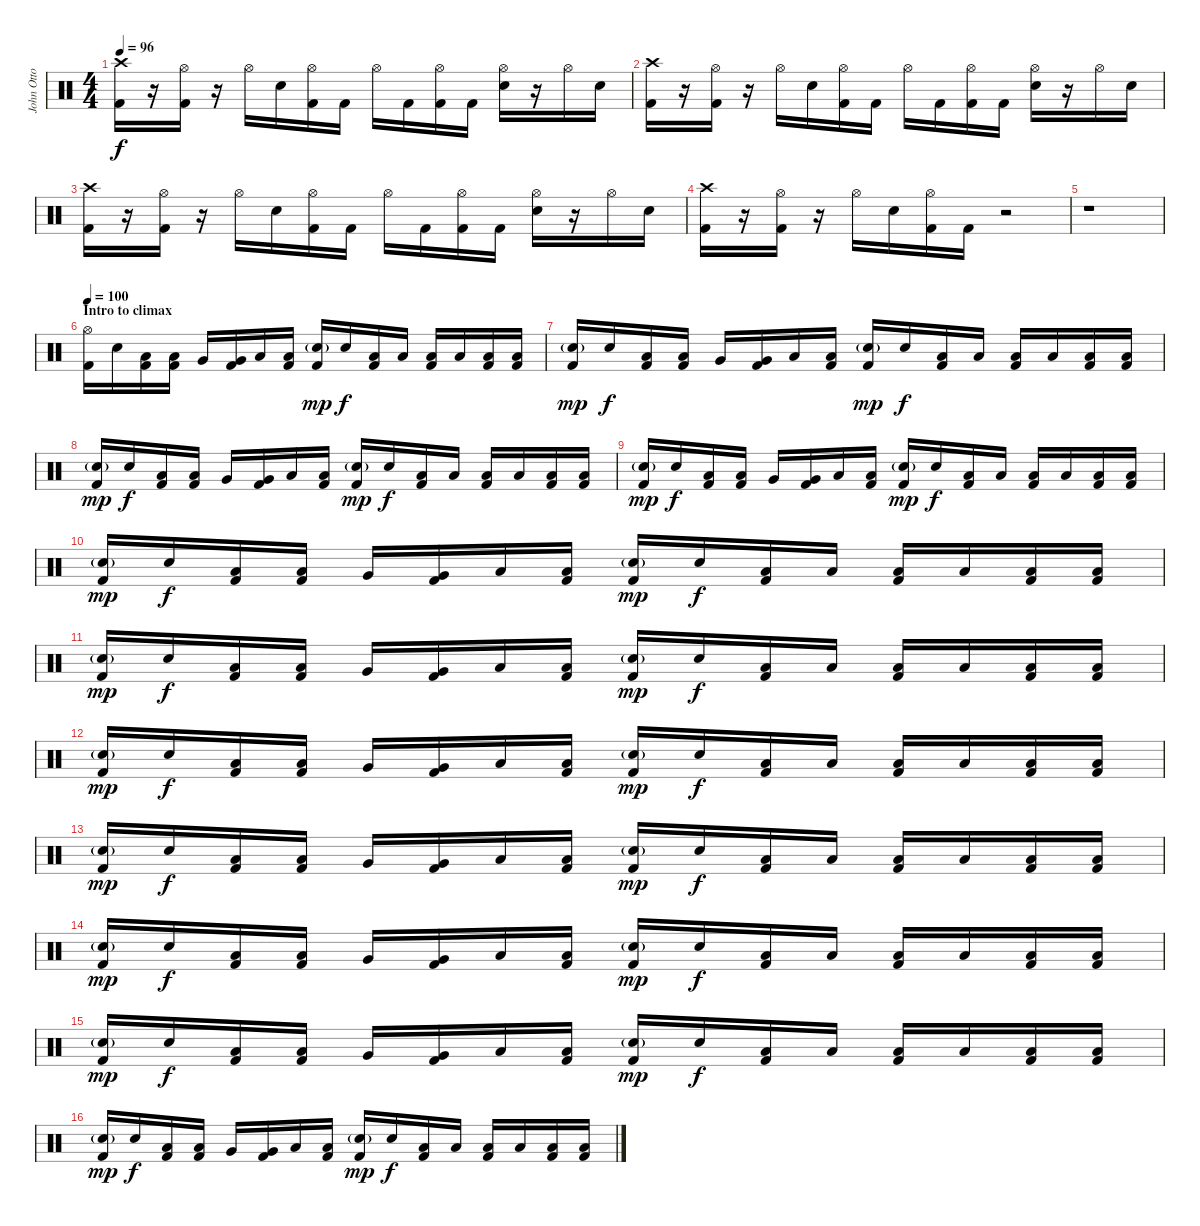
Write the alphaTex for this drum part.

\track ("John Otto" "John Otto") {instrument percussion}
\staff {score}
\articulation defaults
\ts (4 4)
\tempo 96
\clef neutral
\ks c
("Crash high (hit)" "Kick (hit) 2").16{dy f} r.16 ("Hi-Hat (open)" "Kick (hit) 2").16 r.16 "Hi-Hat (open)".16 "Snare (hit) 2".16 ("Hi-Hat (open)" "Kick (hit) 2").16 "Kick (hit) 2".16 "Hi-Hat (open)".16 "Kick (hit) 2".16 ("Hi-Hat (open)" "Kick (hit) 2").16 "Kick (hit) 2".16 ("Hi-Hat (open)" "Snare (hit) 2").16 r.16 "Hi-Hat (open)".16 "Snare (hit) 2".16 |
("Crash high (hit)" "Kick (hit) 2").16 r.16 ("Hi-Hat (open)" "Kick (hit) 2").16 r.16 "Hi-Hat (open)".16 "Snare (hit) 2".16 ("Hi-Hat (open)" "Kick (hit) 2").16 "Kick (hit) 2".16 "Hi-Hat (open)".16 "Kick (hit) 2".16 ("Hi-Hat (open)" "Kick (hit) 2").16 "Kick (hit) 2".16 ("Hi-Hat (open)" "Snare (hit) 2").16 r.16 "Hi-Hat (open)".16 "Snare (hit) 2".16 |
("Crash high (hit)" "Kick (hit) 2").16 r.16 ("Hi-Hat (open)" "Kick (hit) 2").16 r.16 "Hi-Hat (open)".16 "Snare (hit) 2".16 ("Hi-Hat (open)" "Kick (hit) 2").16 "Kick (hit) 2".16 "Hi-Hat (open)".16 "Kick (hit) 2".16 ("Hi-Hat (open)" "Kick (hit) 2").16 "Kick (hit) 2".16 ("Hi-Hat (open)" "Snare (hit) 2").16 r.16 "Hi-Hat (open)".16 "Snare (hit) 2".16 |
("Crash high (hit)" "Kick (hit) 2").16 r.16 ("Hi-Hat (open)" "Kick (hit) 2").16 r.16 "Hi-Hat (open)".16 "Snare (hit) 2".16 ("Hi-Hat (open)" "Kick (hit) 2").16 "Kick (hit) 2".16 r.2 |
r.1 |
\section ("" "Intro to climax")
\tempo 100
("Hi-Hat (open)" "Kick (hit) 2").16 "Snare (hit) 2".16 ("Low Tom (hit)" "Kick (hit) 2").16 ("Low Tom (hit)" "Kick (hit) 2").16 "Very Low Tom (hit)".16 ("Very Low Tom (hit)" "Kick (hit) 2").16 "Low Floor Tom (hit)".16 ("Low Floor Tom (hit)" "Kick (hit) 2").16 ("Snare (hit) 2"{g} "Kick (hit) 2").16{dy mp} "Snare (hit) 2".16{dy f} ("Low Tom (hit)" "Kick (hit) 2").16 "Low Tom (hit)".16 ("Low Tom (hit)" "Kick (hit) 2").16 "Low Tom (hit)".16 ("Low Floor Tom (hit)" "Kick (hit) 2").16 ("Low Floor Tom (hit)" "Kick (hit) 2").16 |
("Snare (hit) 2"{g} "Kick (hit) 2").16{dy mp} "Snare (hit) 2".16{dy f} ("Low Tom (hit)" "Kick (hit) 2").16 ("Low Tom (hit)" "Kick (hit) 2").16 "Very Low Tom (hit)".16 ("Very Low Tom (hit)" "Kick (hit) 2").16 "Low Floor Tom (hit)".16 ("Low Floor Tom (hit)" "Kick (hit) 2").16 ("Snare (hit) 2"{g} "Kick (hit) 2").16{dy mp} "Snare (hit) 2".16{dy f} ("Low Tom (hit)" "Kick (hit) 2").16 "Low Tom (hit)".16 ("Low Tom (hit)" "Kick (hit) 2").16 "Low Tom (hit)".16 ("Low Floor Tom (hit)" "Kick (hit) 2").16 ("Low Floor Tom (hit)" "Kick (hit) 2").16 |
("Snare (hit) 2"{g} "Kick (hit) 2").16{dy mp} "Snare (hit) 2".16{dy f} ("Low Tom (hit)" "Kick (hit) 2").16 ("Low Tom (hit)" "Kick (hit) 2").16 "Very Low Tom (hit)".16 ("Very Low Tom (hit)" "Kick (hit) 2").16 "Low Floor Tom (hit)".16 ("Low Floor Tom (hit)" "Kick (hit) 2").16 ("Snare (hit) 2"{g} "Kick (hit) 2").16{dy mp} "Snare (hit) 2".16{dy f} ("Low Tom (hit)" "Kick (hit) 2").16 "Low Tom (hit)".16 ("Low Tom (hit)" "Kick (hit) 2").16 "Low Tom (hit)".16 ("Low Floor Tom (hit)" "Kick (hit) 2").16 ("Low Floor Tom (hit)" "Kick (hit) 2").16 |
("Snare (hit) 2"{g} "Kick (hit) 2").16{dy mp} "Snare (hit) 2".16{dy f} ("Low Tom (hit)" "Kick (hit) 2").16 ("Low Tom (hit)" "Kick (hit) 2").16 "Very Low Tom (hit)".16 ("Very Low Tom (hit)" "Kick (hit) 2").16 "Low Floor Tom (hit)".16 ("Low Floor Tom (hit)" "Kick (hit) 2").16 ("Snare (hit) 2"{g} "Kick (hit) 2").16{dy mp} "Snare (hit) 2".16{dy f} ("Low Tom (hit)" "Kick (hit) 2").16 "Low Tom (hit)".16 ("Low Tom (hit)" "Kick (hit) 2").16 "Low Tom (hit)".16 ("Low Floor Tom (hit)" "Kick (hit) 2").16 ("Low Floor Tom (hit)" "Kick (hit) 2").16 |
("Snare (hit) 2"{g} "Kick (hit) 2").16{dy mp} "Snare (hit) 2".16{dy f} ("Low Tom (hit)" "Kick (hit) 2").16 ("Low Tom (hit)" "Kick (hit) 2").16 "Very Low Tom (hit)".16 ("Very Low Tom (hit)" "Kick (hit) 2").16 "Low Floor Tom (hit)".16 ("Low Floor Tom (hit)" "Kick (hit) 2").16 ("Snare (hit) 2"{g} "Kick (hit) 2").16{dy mp} "Snare (hit) 2".16{dy f} ("Low Tom (hit)" "Kick (hit) 2").16 "Low Tom (hit)".16 ("Low Tom (hit)" "Kick (hit) 2").16 "Low Tom (hit)".16 ("Low Floor Tom (hit)" "Kick (hit) 2").16 ("Low Floor Tom (hit)" "Kick (hit) 2").16 |
("Snare (hit) 2"{g} "Kick (hit) 2").16{dy mp} "Snare (hit) 2".16{dy f} ("Low Tom (hit)" "Kick (hit) 2").16 ("Low Tom (hit)" "Kick (hit) 2").16 "Very Low Tom (hit)".16 ("Very Low Tom (hit)" "Kick (hit) 2").16 "Low Floor Tom (hit)".16 ("Low Floor Tom (hit)" "Kick (hit) 2").16 ("Snare (hit) 2"{g} "Kick (hit) 2").16{dy mp} "Snare (hit) 2".16{dy f} ("Low Tom (hit)" "Kick (hit) 2").16 "Low Tom (hit)".16 ("Low Tom (hit)" "Kick (hit) 2").16 "Low Tom (hit)".16 ("Low Floor Tom (hit)" "Kick (hit) 2").16 ("Low Floor Tom (hit)" "Kick (hit) 2").16 |
("Snare (hit) 2"{g} "Kick (hit) 2").16{dy mp} "Snare (hit) 2".16{dy f} ("Low Tom (hit)" "Kick (hit) 2").16 ("Low Tom (hit)" "Kick (hit) 2").16 "Very Low Tom (hit)".16 ("Very Low Tom (hit)" "Kick (hit) 2").16 "Low Floor Tom (hit)".16 ("Low Floor Tom (hit)" "Kick (hit) 2").16 ("Snare (hit) 2"{g} "Kick (hit) 2").16{dy mp} "Snare (hit) 2".16{dy f} ("Low Tom (hit)" "Kick (hit) 2").16 "Low Tom (hit)".16 ("Low Tom (hit)" "Kick (hit) 2").16 "Low Tom (hit)".16 ("Low Floor Tom (hit)" "Kick (hit) 2").16 ("Low Floor Tom (hit)" "Kick (hit) 2").16 |
("Snare (hit) 2"{g} "Kick (hit) 2").16{dy mp} "Snare (hit) 2".16{dy f} ("Low Tom (hit)" "Kick (hit) 2").16 ("Low Tom (hit)" "Kick (hit) 2").16 "Very Low Tom (hit)".16 ("Very Low Tom (hit)" "Kick (hit) 2").16 "Low Floor Tom (hit)".16 ("Low Floor Tom (hit)" "Kick (hit) 2").16 ("Snare (hit) 2"{g} "Kick (hit) 2").16{dy mp} "Snare (hit) 2".16{dy f} ("Low Tom (hit)" "Kick (hit) 2").16 "Low Tom (hit)".16 ("Low Tom (hit)" "Kick (hit) 2").16 "Low Tom (hit)".16 ("Low Floor Tom (hit)" "Kick (hit) 2").16 ("Low Floor Tom (hit)" "Kick (hit) 2").16 |
("Snare (hit) 2"{g} "Kick (hit) 2").16{dy mp} "Snare (hit) 2".16{dy f} ("Low Tom (hit)" "Kick (hit) 2").16 ("Low Tom (hit)" "Kick (hit) 2").16 "Very Low Tom (hit)".16 ("Very Low Tom (hit)" "Kick (hit) 2").16 "Low Floor Tom (hit)".16 ("Low Floor Tom (hit)" "Kick (hit) 2").16 ("Snare (hit) 2"{g} "Kick (hit) 2").16{dy mp} "Snare (hit) 2".16{dy f} ("Low Tom (hit)" "Kick (hit) 2").16 "Low Tom (hit)".16 ("Low Tom (hit)" "Kick (hit) 2").16 "Low Tom (hit)".16 ("Low Floor Tom (hit)" "Kick (hit) 2").16 ("Low Floor Tom (hit)" "Kick (hit) 2").16 |
("Snare (hit) 2"{g} "Kick (hit) 2").16{dy mp} "Snare (hit) 2".16{dy f} ("Low Tom (hit)" "Kick (hit) 2").16 ("Low Tom (hit)" "Kick (hit) 2").16 "Very Low Tom (hit)".16 ("Very Low Tom (hit)" "Kick (hit) 2").16 "Low Floor Tom (hit)".16 ("Low Floor Tom (hit)" "Kick (hit) 2").16 ("Snare (hit) 2"{g} "Kick (hit) 2").16{dy mp} "Snare (hit) 2".16{dy f} ("Low Tom (hit)" "Kick (hit) 2").16 "Low Tom (hit)".16 ("Low Tom (hit)" "Kick (hit) 2").16 "Low Tom (hit)".16 ("Low Floor Tom (hit)" "Kick (hit) 2").16 ("Low Floor Tom (hit)" "Kick (hit) 2").16 |
("Snare (hit) 2"{g} "Kick (hit) 2").16{dy mp} "Snare (hit) 2".16{dy f} ("Low Tom (hit)" "Kick (hit) 2").16 ("Low Tom (hit)" "Kick (hit) 2").16 "Very Low Tom (hit)".16 ("Very Low Tom (hit)" "Kick (hit) 2").16 "Low Floor Tom (hit)".16 ("Low Floor Tom (hit)" "Kick (hit) 2").16 ("Snare (hit) 2"{g} "Kick (hit) 2").16{dy mp} "Snare (hit) 2".16{dy f} ("Low Tom (hit)" "Kick (hit) 2").16 "Low Tom (hit)".16 ("Low Tom (hit)" "Kick (hit) 2").16 "Low Tom (hit)".16 ("Low Floor Tom (hit)" "Kick (hit) 2").16 ("Low Floor Tom (hit)" "Kick (hit) 2").16
